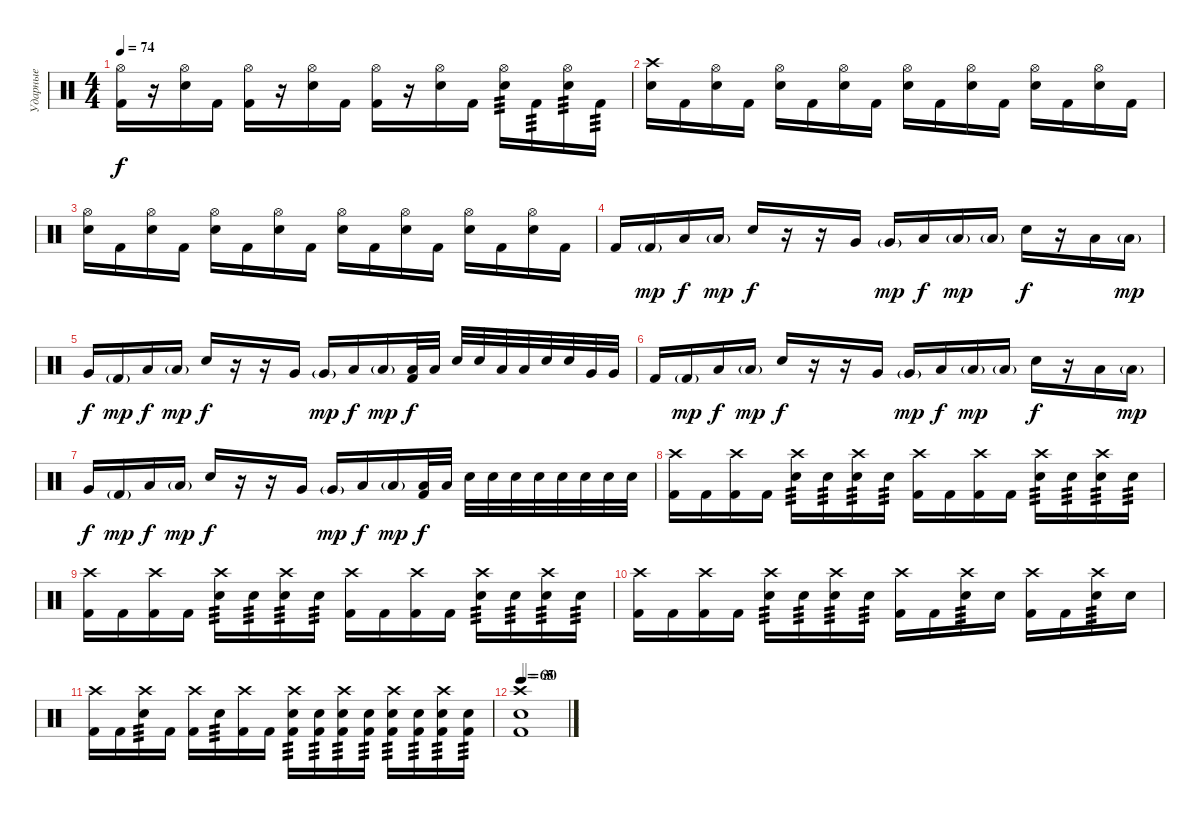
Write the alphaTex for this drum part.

\track ("Ударные" "Ударные") {instrument percussion}
\staff {score}
\articulation defaults
\ts (4 4)
\tempo 74
\clef neutral
\ks c
("Hi-Hat (open)" "Kick (hit) 2").16{dy f} r.16 ("Hi-Hat (open)" "Electric Snare (hit)").16 "Kick (hit) 2".16 ("Hi-Hat (open)" "Kick (hit) 2").16 r.16 ("Hi-Hat (open)" "Electric Snare (hit)").16 "Kick (hit) 2".16 ("Hi-Hat (open)" "Kick (hit) 2").16 r.16 ("Hi-Hat (open)" "Electric Snare (hit)").16 "Kick (hit) 2".16 ("Hi-Hat (open)" "Electric Snare (hit)").16{tp 3} "Kick (hit) 2".16{tp 3} ("Hi-Hat (open)" "Electric Snare (hit)").16{tp 3} "Kick (hit) 2".16{tp 3} |
("Crash high (hit)" "Electric Snare (hit)").16 "Kick (hit) 2".16 ("Hi-Hat (open)" "Electric Snare (hit)").16 "Kick (hit) 2".16 ("Hi-Hat (open)" "Electric Snare (hit)").16 "Kick (hit) 2".16 ("Hi-Hat (open)" "Electric Snare (hit)").16 "Kick (hit) 2".16 ("Hi-Hat (open)" "Electric Snare (hit)").16 "Kick (hit) 2".16 ("Hi-Hat (open)" "Electric Snare (hit)").16 "Kick (hit) 2".16 ("Hi-Hat (open)" "Electric Snare (hit)").16 "Kick (hit) 2".16 ("Hi-Hat (open)" "Electric Snare (hit)").16 "Kick (hit) 2".16 |
("Hi-Hat (open)" "Electric Snare (hit)").16 "Kick (hit) 2".16 ("Hi-Hat (open)" "Electric Snare (hit)").16 "Kick (hit) 2".16 ("Hi-Hat (open)" "Electric Snare (hit)").16 "Kick (hit) 2".16 ("Hi-Hat (open)" "Electric Snare (hit)").16 "Kick (hit) 2".16 ("Hi-Hat (open)" "Electric Snare (hit)").16 "Kick (hit) 2".16 ("Hi-Hat (open)" "Electric Snare (hit)").16 "Kick (hit) 2".16 ("Hi-Hat (open)" "Electric Snare (hit)").16 "Kick (hit) 2".16 ("Hi-Hat (open)" "Electric Snare (hit)").16 "Kick (hit) 2".16 |
"Kick (hit) 2".16 "Kick (hit) 2"{g}.16{dy mp} "Low Floor Tom (hit)".16{dy f} "Low Floor Tom (hit)"{g}.16{dy mp} "Electric Snare (hit)".16{dy f} r.16 r.16 "Very Low Tom (hit)".16 "Very Low Tom (hit)"{g}.16{dy mp} "Low Floor Tom (hit)".16{dy f} "Low Floor Tom (hit)"{g}.16{dy mp} "Low Floor Tom (hit)"{g}.16 "Electric Snare (hit)".16{dy f} r.16 "Low Floor Tom (hit)".16 "Low Floor Tom (hit)"{g}.16{dy mp} |
"Very Low Tom (hit)".16{dy f} "Kick (hit) 2"{g}.16{dy mp} "Low Floor Tom (hit)".16{dy f} "Low Floor Tom (hit)"{g}.16{dy mp} "Electric Snare (hit)".16{dy f} r.16 r.16 "Very Low Tom (hit)".16 "Very Low Tom (hit)"{g}.16{dy mp} "Low Floor Tom (hit)".16{dy f} "Low Floor Tom (hit)"{g}.16{dy mp} ("Low Tom (hit)" "Kick (hit) 2").32{dy f} "Low Tom (hit)".32 "Electric Snare (hit)".32 "Electric Snare (hit)".32 "Low Tom (hit)".32 "Low Tom (hit)".32 "Electric Snare (hit)".32 "Electric Snare (hit)".32 "Very Low Tom (hit)".32 "Very Low Tom (hit)".32 |
"Kick (hit) 2".16 "Kick (hit) 2"{g}.16{dy mp} "Low Floor Tom (hit)".16{dy f} "Low Floor Tom (hit)"{g}.16{dy mp} "Electric Snare (hit)".16{dy f} r.16 r.16 "Very Low Tom (hit)".16 "Very Low Tom (hit)"{g}.16{dy mp} "Low Floor Tom (hit)".16{dy f} "Low Floor Tom (hit)"{g}.16{dy mp} "Low Floor Tom (hit)"{g}.16 "Electric Snare (hit)".16{dy f} r.16 "Low Floor Tom (hit)".16 "Low Floor Tom (hit)"{g}.16{dy mp} |
"Very Low Tom (hit)".16{dy f} "Kick (hit) 2"{g}.16{dy mp} "Low Floor Tom (hit)".16{dy f} "Low Floor Tom (hit)"{g}.16{dy mp} "Electric Snare (hit)".16{dy f} r.16 r.16 "Very Low Tom (hit)".16 "Very Low Tom (hit)"{g}.16{dy mp} "Low Floor Tom (hit)".16{dy f} "Low Floor Tom (hit)"{g}.16{dy mp} ("Low Tom (hit)" "Kick (hit) 2").32{dy f} "Low Tom (hit)".32 "Electric Snare (hit)".32 "Electric Snare (hit)".32 "Electric Snare (hit)".32 "Electric Snare (hit)".32 "Electric Snare (hit)".32 "Electric Snare (hit)".32 "Electric Snare (hit)".32 "Electric Snare (hit)".32 |
("Crash high (hit)" "Kick (hit) 2").16 "Kick (hit) 2".16 ("Crash high (hit)" "Kick (hit) 2").16 "Kick (hit) 2".16 ("Crash high (hit)" "Electric Snare (hit)").16{tp 3} "Electric Snare (hit)".16{tp 3} ("Crash high (hit)" "Electric Snare (hit)").16{tp 3} "Electric Snare (hit)".16{tp 3} ("Crash high (hit)" "Kick (hit) 2").16 "Kick (hit) 2".16 ("Crash high (hit)" "Kick (hit) 2").16 "Kick (hit) 2".16 ("Crash high (hit)" "Electric Snare (hit)").16{tp 3} "Electric Snare (hit)".16{tp 3} ("Crash high (hit)" "Electric Snare (hit)").16{tp 3} "Electric Snare (hit)".16{tp 3} |
("Crash high (hit)" "Kick (hit) 2").16 "Kick (hit) 2".16 ("Crash high (hit)" "Kick (hit) 2").16 "Kick (hit) 2".16 ("Crash high (hit)" "Electric Snare (hit)").16{tp 3} "Electric Snare (hit)".16{tp 3} ("Crash high (hit)" "Electric Snare (hit)").16{tp 3} "Electric Snare (hit)".16{tp 3} ("Crash high (hit)" "Kick (hit) 2").16 "Kick (hit) 2".16 ("Crash high (hit)" "Kick (hit) 2").16 "Kick (hit) 2".16 ("Crash high (hit)" "Electric Snare (hit)").16{tp 3} "Electric Snare (hit)".16{tp 3} ("Crash high (hit)" "Electric Snare (hit)").16{tp 3} "Electric Snare (hit)".16{tp 3} |
("Crash high (hit)" "Kick (hit) 2").16 "Kick (hit) 2".16 ("Crash high (hit)" "Kick (hit) 2").16 "Kick (hit) 2".16 ("Crash high (hit)" "Electric Snare (hit)").16{tp 3} "Electric Snare (hit)".16{tp 3} ("Crash high (hit)" "Electric Snare (hit)").16{tp 3} "Electric Snare (hit)".16{tp 3} ("Crash high (hit)" "Kick (hit) 2").16 "Kick (hit) 2".16 ("Crash high (hit)" "Electric Snare (hit)").16{tp 3} "Electric Snare (hit)".16 ("Crash high (hit)" "Kick (hit) 2").16 "Kick (hit) 2".16 ("Crash high (hit)" "Electric Snare (hit)").16{tp 3} "Electric Snare (hit)".16 |
("Crash high (hit)" "Kick (hit) 2").16 "Kick (hit) 2".16 ("Crash high (hit)" "Electric Snare (hit)").16{tp 3} "Kick (hit) 2".16 ("Crash high (hit)" "Kick (hit) 2").16 "Electric Snare (hit)".16{tp 3} ("Crash high (hit)" "Kick (hit) 2").16 "Kick (hit) 2".16 ("Crash high (hit)" "Electric Snare (hit)" "Kick (hit) 2").16{tp 3} ("Electric Snare (hit)" "Kick (hit) 2").16{tp 3} ("Crash high (hit)" "Electric Snare (hit)" "Kick (hit) 2").16{tp 3} ("Electric Snare (hit)" "Kick (hit) 2").16{tp 3} ("Crash high (hit)" "Electric Snare (hit)" "Kick (hit) 2").16{tp 3} ("Electric Snare (hit)" "Kick (hit) 2").16{tp 3} ("Crash high (hit)" "Electric Snare (hit)" "Kick (hit) 2").16{tp 3} ("Electric Snare (hit)" "Kick (hit) 2").16{tp 3} |
\tempo 65
\tempo (30 0.0625)
("Crash high (hit)" "Electric Snare (hit)" "Kick (hit) 2").1
